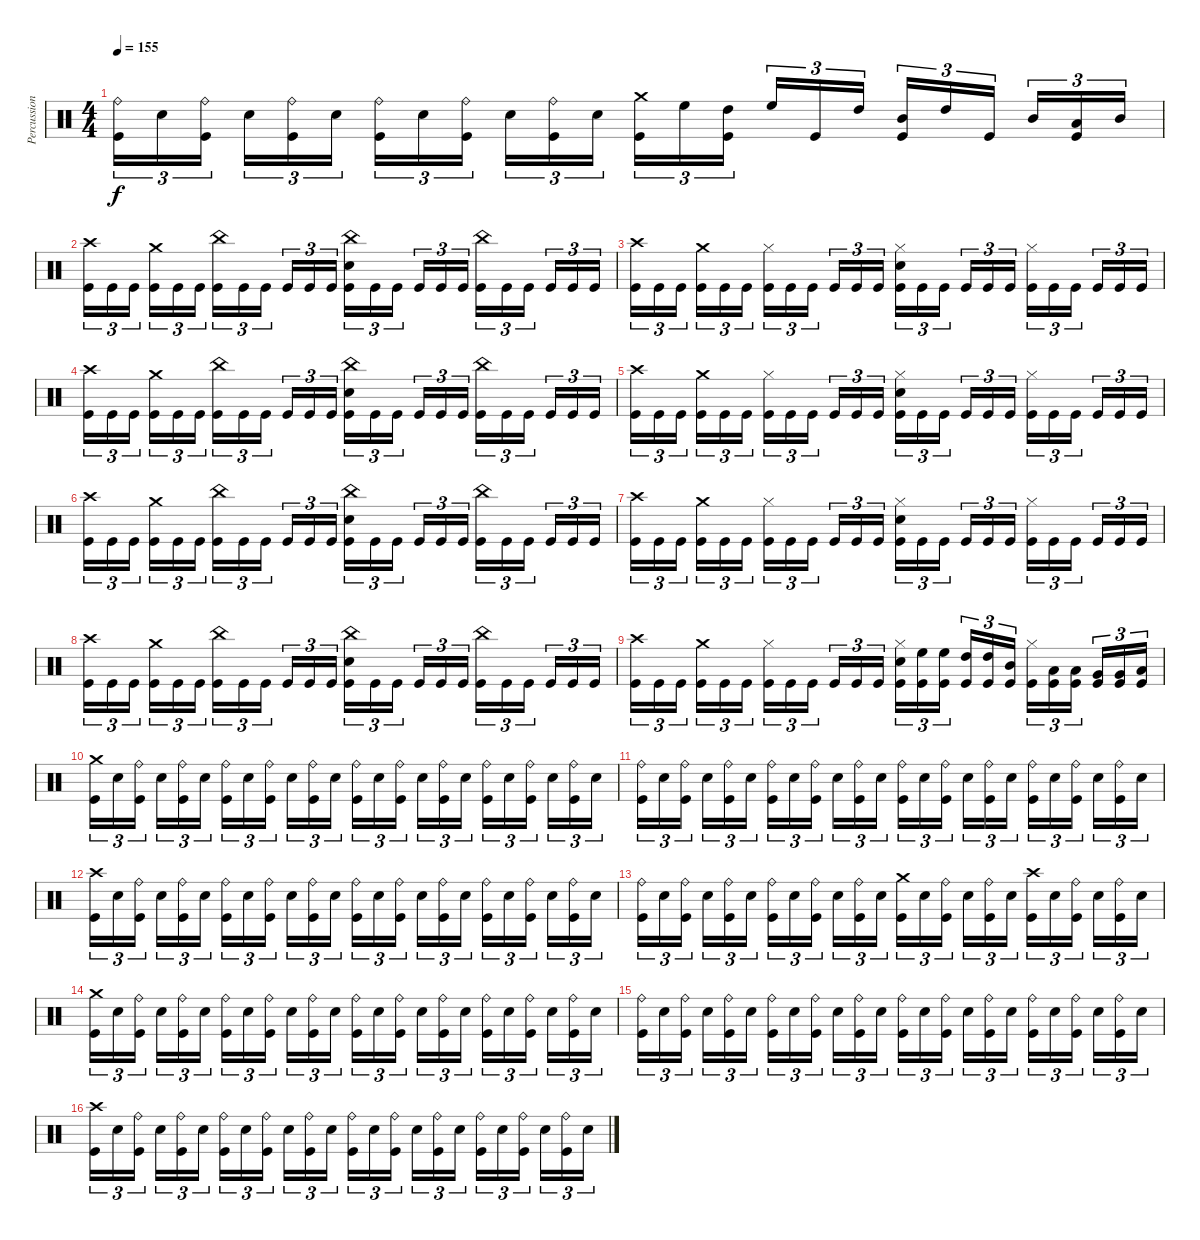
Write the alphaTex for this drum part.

\track ("Percussion" "Percussion") {instrument percussion}
\staff {score}
\articulation defaults
\ts (4 4)
\tempo 155
\clef neutral
\ks c
("Ride (bell)" "Kick (hit)").16{tu (3 2) dy f} "Snare (hit) 2".16{tu (3 2)} ("Ride (bell)" "Kick (hit)").16{tu (3 2) beam splitsecondary} "Snare (hit) 2".16{tu (3 2)} ("Ride (bell)" "Kick (hit)").16{tu (3 2)} "Snare (hit) 2".16{tu (3 2)} ("Ride (bell)" "Kick (hit)").16{tu (3 2)} "Snare (hit) 2".16{tu (3 2)} ("Ride (bell)" "Kick (hit)").16{tu (3 2) beam splitsecondary} "Snare (hit) 2".16{tu (3 2)} ("Ride (bell)" "Kick (hit)").16{tu (3 2)} "Snare (hit) 2".16{tu (3 2)} ("Crash medium (hit)" "Kick (hit)").16{tu (3 2)} "High Floor Tom (hit)".16{tu (3 2)} ("High Tom (hit)" "Kick (hit)").16{tu (3 2) beam splitsecondary} "High Floor Tom (hit)".16{tu (3 2)} "Kick (hit)".16{tu (3 2)} "High Tom (hit)".16{tu (3 2)} ("Mid Tom (hit)" "Kick (hit)").16{tu (3 2)} "High Tom (hit)".16{tu (3 2)} "Kick (hit)".16{tu (3 2) beam splitsecondary} "Mid Tom (hit)".16{tu (3 2)} ("Low Tom (hit)" "Kick (hit)").16{tu (3 2)} "Mid Tom (hit)".16{tu (3 2)} |
("Crash high (hit)" "Kick (hit)").16{tu (3 2)} "Kick (hit)".16{tu (3 2)} "Kick (hit)".16{tu (3 2) beam splitsecondary} ("Crash medium (hit)" "Kick (hit)").16{tu (3 2)} "Kick (hit)".16{tu (3 2)} "Kick (hit)".16{tu (3 2)} ("China (hit)" "Kick (hit)").16{tu (3 2)} "Kick (hit)".16{tu (3 2)} "Kick (hit)".16{tu (3 2) beam splitsecondary} "Kick (hit)".16{tu (3 2)} "Kick (hit)".16{tu (3 2)} "Kick (hit)".16{tu (3 2)} ("China (hit)" "Snare (hit) 2" "Kick (hit)").16{tu (3 2)} "Kick (hit)".16{tu (3 2)} "Kick (hit)".16{tu (3 2) beam splitsecondary} "Kick (hit)".16{tu (3 2)} "Kick (hit)".16{tu (3 2)} "Kick (hit)".16{tu (3 2)} ("China (hit)" "Kick (hit)").16{tu (3 2)} "Kick (hit)".16{tu (3 2)} "Kick (hit)".16{tu (3 2) beam splitsecondary} "Kick (hit)".16{tu (3 2)} "Kick (hit)".16{tu (3 2)} "Kick (hit)".16{tu (3 2)} |
("Crash high (hit)" "Kick (hit)").16{tu (3 2)} "Kick (hit)".16{tu (3 2)} "Kick (hit)".16{tu (3 2) beam splitsecondary} ("Crash medium (hit)" "Kick (hit)").16{tu (3 2)} "Kick (hit)".16{tu (3 2)} "Kick (hit)".16{tu (3 2)} ("Hi-Hat (closed)" "Kick (hit)").16{tu (3 2)} "Kick (hit)".16{tu (3 2)} "Kick (hit)".16{tu (3 2) beam splitsecondary} "Kick (hit)".16{tu (3 2)} "Kick (hit)".16{tu (3 2)} "Kick (hit)".16{tu (3 2)} ("Hi-Hat (closed)" "Snare (hit) 2" "Kick (hit)").16{tu (3 2)} "Kick (hit)".16{tu (3 2)} "Kick (hit)".16{tu (3 2) beam splitsecondary} "Kick (hit)".16{tu (3 2)} "Kick (hit)".16{tu (3 2)} "Kick (hit)".16{tu (3 2)} ("Hi-Hat (closed)" "Kick (hit)").16{tu (3 2)} "Kick (hit)".16{tu (3 2)} "Kick (hit)".16{tu (3 2) beam splitsecondary} "Kick (hit)".16{tu (3 2)} "Kick (hit)".16{tu (3 2)} "Kick (hit)".16{tu (3 2)} |
("Crash high (hit)" "Kick (hit)").16{tu (3 2)} "Kick (hit)".16{tu (3 2)} "Kick (hit)".16{tu (3 2) beam splitsecondary} ("Crash medium (hit)" "Kick (hit)").16{tu (3 2)} "Kick (hit)".16{tu (3 2)} "Kick (hit)".16{tu (3 2)} ("China (hit)" "Kick (hit)").16{tu (3 2)} "Kick (hit)".16{tu (3 2)} "Kick (hit)".16{tu (3 2) beam splitsecondary} "Kick (hit)".16{tu (3 2)} "Kick (hit)".16{tu (3 2)} "Kick (hit)".16{tu (3 2)} ("China (hit)" "Snare (hit) 2" "Kick (hit)").16{tu (3 2)} "Kick (hit)".16{tu (3 2)} "Kick (hit)".16{tu (3 2) beam splitsecondary} "Kick (hit)".16{tu (3 2)} "Kick (hit)".16{tu (3 2)} "Kick (hit)".16{tu (3 2)} ("China (hit)" "Kick (hit)").16{tu (3 2)} "Kick (hit)".16{tu (3 2)} "Kick (hit)".16{tu (3 2) beam splitsecondary} "Kick (hit)".16{tu (3 2)} "Kick (hit)".16{tu (3 2)} "Kick (hit)".16{tu (3 2)} |
("Crash high (hit)" "Kick (hit)").16{tu (3 2)} "Kick (hit)".16{tu (3 2)} "Kick (hit)".16{tu (3 2) beam splitsecondary} ("Crash medium (hit)" "Kick (hit)").16{tu (3 2)} "Kick (hit)".16{tu (3 2)} "Kick (hit)".16{tu (3 2)} ("Hi-Hat (closed)" "Kick (hit)").16{tu (3 2)} "Kick (hit)".16{tu (3 2)} "Kick (hit)".16{tu (3 2) beam splitsecondary} "Kick (hit)".16{tu (3 2)} "Kick (hit)".16{tu (3 2)} "Kick (hit)".16{tu (3 2)} ("Hi-Hat (closed)" "Snare (hit) 2" "Kick (hit)").16{tu (3 2)} "Kick (hit)".16{tu (3 2)} "Kick (hit)".16{tu (3 2) beam splitsecondary} "Kick (hit)".16{tu (3 2)} "Kick (hit)".16{tu (3 2)} "Kick (hit)".16{tu (3 2)} ("Hi-Hat (closed)" "Kick (hit)").16{tu (3 2)} "Kick (hit)".16{tu (3 2)} "Kick (hit)".16{tu (3 2) beam splitsecondary} "Kick (hit)".16{tu (3 2)} "Kick (hit)".16{tu (3 2)} "Kick (hit)".16{tu (3 2)} |
("Crash high (hit)" "Kick (hit)").16{tu (3 2)} "Kick (hit)".16{tu (3 2)} "Kick (hit)".16{tu (3 2) beam splitsecondary} ("Crash medium (hit)" "Kick (hit)").16{tu (3 2)} "Kick (hit)".16{tu (3 2)} "Kick (hit)".16{tu (3 2)} ("China (hit)" "Kick (hit)").16{tu (3 2)} "Kick (hit)".16{tu (3 2)} "Kick (hit)".16{tu (3 2) beam splitsecondary} "Kick (hit)".16{tu (3 2)} "Kick (hit)".16{tu (3 2)} "Kick (hit)".16{tu (3 2)} ("China (hit)" "Snare (hit) 2" "Kick (hit)").16{tu (3 2)} "Kick (hit)".16{tu (3 2)} "Kick (hit)".16{tu (3 2) beam splitsecondary} "Kick (hit)".16{tu (3 2)} "Kick (hit)".16{tu (3 2)} "Kick (hit)".16{tu (3 2)} ("China (hit)" "Kick (hit)").16{tu (3 2)} "Kick (hit)".16{tu (3 2)} "Kick (hit)".16{tu (3 2) beam splitsecondary} "Kick (hit)".16{tu (3 2)} "Kick (hit)".16{tu (3 2)} "Kick (hit)".16{tu (3 2)} |
("Crash high (hit)" "Kick (hit)").16{tu (3 2)} "Kick (hit)".16{tu (3 2)} "Kick (hit)".16{tu (3 2) beam splitsecondary} ("Crash medium (hit)" "Kick (hit)").16{tu (3 2)} "Kick (hit)".16{tu (3 2)} "Kick (hit)".16{tu (3 2)} ("Hi-Hat (closed)" "Kick (hit)").16{tu (3 2)} "Kick (hit)".16{tu (3 2)} "Kick (hit)".16{tu (3 2) beam splitsecondary} "Kick (hit)".16{tu (3 2)} "Kick (hit)".16{tu (3 2)} "Kick (hit)".16{tu (3 2)} ("Hi-Hat (closed)" "Snare (hit) 2" "Kick (hit)").16{tu (3 2)} "Kick (hit)".16{tu (3 2)} "Kick (hit)".16{tu (3 2) beam splitsecondary} "Kick (hit)".16{tu (3 2)} "Kick (hit)".16{tu (3 2)} "Kick (hit)".16{tu (3 2)} ("Hi-Hat (closed)" "Kick (hit)").16{tu (3 2)} "Kick (hit)".16{tu (3 2)} "Kick (hit)".16{tu (3 2) beam splitsecondary} "Kick (hit)".16{tu (3 2)} "Kick (hit)".16{tu (3 2)} "Kick (hit)".16{tu (3 2)} |
("Crash high (hit)" "Kick (hit)").16{tu (3 2)} "Kick (hit)".16{tu (3 2)} "Kick (hit)".16{tu (3 2) beam splitsecondary} ("Crash medium (hit)" "Kick (hit)").16{tu (3 2)} "Kick (hit)".16{tu (3 2)} "Kick (hit)".16{tu (3 2)} ("China (hit)" "Kick (hit)").16{tu (3 2)} "Kick (hit)".16{tu (3 2)} "Kick (hit)".16{tu (3 2) beam splitsecondary} "Kick (hit)".16{tu (3 2)} "Kick (hit)".16{tu (3 2)} "Kick (hit)".16{tu (3 2)} ("China (hit)" "Snare (hit) 2" "Kick (hit)").16{tu (3 2)} "Kick (hit)".16{tu (3 2)} "Kick (hit)".16{tu (3 2) beam splitsecondary} "Kick (hit)".16{tu (3 2)} "Kick (hit)".16{tu (3 2)} "Kick (hit)".16{tu (3 2)} ("China (hit)" "Kick (hit)").16{tu (3 2)} "Kick (hit)".16{tu (3 2)} "Kick (hit)".16{tu (3 2) beam splitsecondary} "Kick (hit)".16{tu (3 2)} "Kick (hit)".16{tu (3 2)} "Kick (hit)".16{tu (3 2)} |
("Crash high (hit)" "Kick (hit)").16{tu (3 2)} "Kick (hit)".16{tu (3 2)} "Kick (hit)".16{tu (3 2) beam splitsecondary} ("Crash medium (hit)" "Kick (hit)").16{tu (3 2)} "Kick (hit)".16{tu (3 2)} "Kick (hit)".16{tu (3 2)} ("Hi-Hat (closed)" "Kick (hit)").16{tu (3 2)} "Kick (hit)".16{tu (3 2)} "Kick (hit)".16{tu (3 2) beam splitsecondary} "Kick (hit)".16{tu (3 2)} "Kick (hit)".16{tu (3 2)} "Kick (hit)".16{tu (3 2)} ("Hi-Hat (closed)" "Snare (hit) 2" "Kick (hit)").16{tu (3 2)} ("High Floor Tom (hit)" "Kick (hit)").16{tu (3 2)} ("High Floor Tom (hit)" "Kick (hit)").16{tu (3 2) beam splitsecondary} ("High Tom (hit)" "Kick (hit)").16{tu (3 2)} ("High Tom (hit)" "Kick (hit)").16{tu (3 2)} ("Mid Tom (hit)" "Kick (hit)").16{tu (3 2)} ("Hi-Hat (closed)" "Kick (hit)").16{tu (3 2)} ("Low Tom (hit)" "Kick (hit)").16{tu (3 2)} ("Low Tom (hit)" "Kick (hit)").16{tu (3 2) beam splitsecondary} ("Very Low Tom (hit)" "Kick (hit)").16{tu (3 2)} ("Very Low Tom (hit)" "Kick (hit)").16{tu (3 2)} ("Low Floor Tom (hit)" "Kick (hit)").16{tu (3 2)} |
("Crash medium (hit)" "Kick (hit)").16{tu (3 2)} "Snare (hit) 2".16{tu (3 2)} ("Ride (bell)" "Kick (hit)").16{tu (3 2) beam splitsecondary} "Snare (hit) 2".16{tu (3 2)} ("Ride (bell)" "Kick (hit)").16{tu (3 2)} "Snare (hit) 2".16{tu (3 2)} ("Ride (bell)" "Kick (hit)").16{tu (3 2)} "Snare (hit) 2".16{tu (3 2)} ("Ride (bell)" "Kick (hit)").16{tu (3 2) beam splitsecondary} "Snare (hit) 2".16{tu (3 2)} ("Ride (bell)" "Kick (hit)").16{tu (3 2)} "Snare (hit) 2".16{tu (3 2)} ("Ride (bell)" "Kick (hit)").16{tu (3 2)} "Snare (hit) 2".16{tu (3 2)} ("Ride (bell)" "Kick (hit)").16{tu (3 2) beam splitsecondary} "Snare (hit) 2".16{tu (3 2)} ("Ride (bell)" "Kick (hit)").16{tu (3 2)} "Snare (hit) 2".16{tu (3 2)} ("Ride (bell)" "Kick (hit)").16{tu (3 2)} "Snare (hit) 2".16{tu (3 2)} ("Ride (bell)" "Kick (hit)").16{tu (3 2) beam splitsecondary} "Snare (hit) 2".16{tu (3 2)} ("Ride (bell)" "Kick (hit)").16{tu (3 2)} "Snare (hit) 2".16{tu (3 2)} |
("Ride (bell)" "Kick (hit)").16{tu (3 2)} "Snare (hit) 2".16{tu (3 2)} ("Ride (bell)" "Kick (hit)").16{tu (3 2) beam splitsecondary} "Snare (hit) 2".16{tu (3 2)} ("Ride (bell)" "Kick (hit)").16{tu (3 2)} "Snare (hit) 2".16{tu (3 2)} ("Ride (bell)" "Kick (hit)").16{tu (3 2)} "Snare (hit) 2".16{tu (3 2)} ("Ride (bell)" "Kick (hit)").16{tu (3 2) beam splitsecondary} "Snare (hit) 2".16{tu (3 2)} ("Ride (bell)" "Kick (hit)").16{tu (3 2)} "Snare (hit) 2".16{tu (3 2)} ("Ride (bell)" "Kick (hit)").16{tu (3 2)} "Snare (hit) 2".16{tu (3 2)} ("Ride (bell)" "Kick (hit)").16{tu (3 2) beam splitsecondary} "Snare (hit) 2".16{tu (3 2)} ("Ride (bell)" "Kick (hit)").16{tu (3 2)} "Snare (hit) 2".16{tu (3 2)} ("Ride (bell)" "Kick (hit)").16{tu (3 2)} "Snare (hit) 2".16{tu (3 2)} ("Ride (bell)" "Kick (hit)").16{tu (3 2) beam splitsecondary} "Snare (hit) 2".16{tu (3 2)} ("Ride (bell)" "Kick (hit)").16{tu (3 2)} "Snare (hit) 2".16{tu (3 2)} |
("Crash high (hit)" "Kick (hit)").16{tu (3 2)} "Snare (hit) 2".16{tu (3 2)} ("Ride (bell)" "Kick (hit)").16{tu (3 2) beam splitsecondary} "Snare (hit) 2".16{tu (3 2)} ("Ride (bell)" "Kick (hit)").16{tu (3 2)} "Snare (hit) 2".16{tu (3 2)} ("Ride (bell)" "Kick (hit)").16{tu (3 2)} "Snare (hit) 2".16{tu (3 2)} ("Ride (bell)" "Kick (hit)").16{tu (3 2) beam splitsecondary} "Snare (hit) 2".16{tu (3 2)} ("Ride (bell)" "Kick (hit)").16{tu (3 2)} "Snare (hit) 2".16{tu (3 2)} ("Ride (bell)" "Kick (hit)").16{tu (3 2)} "Snare (hit) 2".16{tu (3 2)} ("Ride (bell)" "Kick (hit)").16{tu (3 2) beam splitsecondary} "Snare (hit) 2".16{tu (3 2)} ("Ride (bell)" "Kick (hit)").16{tu (3 2)} "Snare (hit) 2".16{tu (3 2)} ("Ride (bell)" "Kick (hit)").16{tu (3 2)} "Snare (hit) 2".16{tu (3 2)} ("Ride (bell)" "Kick (hit)").16{tu (3 2) beam splitsecondary} "Snare (hit) 2".16{tu (3 2)} ("Ride (bell)" "Kick (hit)").16{tu (3 2)} "Snare (hit) 2".16{tu (3 2)} |
("Ride (bell)" "Kick (hit)").16{tu (3 2)} "Snare (hit) 2".16{tu (3 2)} ("Ride (bell)" "Kick (hit)").16{tu (3 2) beam splitsecondary} "Snare (hit) 2".16{tu (3 2)} ("Ride (bell)" "Kick (hit)").16{tu (3 2)} "Snare (hit) 2".16{tu (3 2)} ("Ride (bell)" "Kick (hit)").16{tu (3 2)} "Snare (hit) 2".16{tu (3 2)} ("Ride (bell)" "Kick (hit)").16{tu (3 2) beam splitsecondary} "Snare (hit) 2".16{tu (3 2)} ("Ride (bell)" "Kick (hit)").16{tu (3 2)} "Snare (hit) 2".16{tu (3 2)} ("Crash medium (hit)" "Kick (hit)").16{tu (3 2)} "Snare (hit) 2".16{tu (3 2)} ("Ride (bell)" "Kick (hit)").16{tu (3 2) beam splitsecondary} "Snare (hit) 2".16{tu (3 2)} ("Ride (bell)" "Kick (hit)").16{tu (3 2)} "Snare (hit) 2".16{tu (3 2)} ("Crash high (hit)" "Kick (hit)").16{tu (3 2)} "Snare (hit) 2".16{tu (3 2)} ("Ride (bell)" "Kick (hit)").16{tu (3 2) beam splitsecondary} "Snare (hit) 2".16{tu (3 2)} ("Ride (bell)" "Kick (hit)").16{tu (3 2)} "Snare (hit) 2".16{tu (3 2)} |
("Crash medium (hit)" "Kick (hit)").16{tu (3 2)} "Snare (hit) 2".16{tu (3 2)} ("Ride (bell)" "Kick (hit)").16{tu (3 2) beam splitsecondary} "Snare (hit) 2".16{tu (3 2)} ("Ride (bell)" "Kick (hit)").16{tu (3 2)} "Snare (hit) 2".16{tu (3 2)} ("Ride (bell)" "Kick (hit)").16{tu (3 2)} "Snare (hit) 2".16{tu (3 2)} ("Ride (bell)" "Kick (hit)").16{tu (3 2) beam splitsecondary} "Snare (hit) 2".16{tu (3 2)} ("Ride (bell)" "Kick (hit)").16{tu (3 2)} "Snare (hit) 2".16{tu (3 2)} ("Ride (bell)" "Kick (hit)").16{tu (3 2)} "Snare (hit) 2".16{tu (3 2)} ("Ride (bell)" "Kick (hit)").16{tu (3 2) beam splitsecondary} "Snare (hit) 2".16{tu (3 2)} ("Ride (bell)" "Kick (hit)").16{tu (3 2)} "Snare (hit) 2".16{tu (3 2)} ("Ride (bell)" "Kick (hit)").16{tu (3 2)} "Snare (hit) 2".16{tu (3 2)} ("Ride (bell)" "Kick (hit)").16{tu (3 2) beam splitsecondary} "Snare (hit) 2".16{tu (3 2)} ("Ride (bell)" "Kick (hit)").16{tu (3 2)} "Snare (hit) 2".16{tu (3 2)} |
("Ride (bell)" "Kick (hit)").16{tu (3 2)} "Snare (hit) 2".16{tu (3 2)} ("Ride (bell)" "Kick (hit)").16{tu (3 2) beam splitsecondary} "Snare (hit) 2".16{tu (3 2)} ("Ride (bell)" "Kick (hit)").16{tu (3 2)} "Snare (hit) 2".16{tu (3 2)} ("Ride (bell)" "Kick (hit)").16{tu (3 2)} "Snare (hit) 2".16{tu (3 2)} ("Ride (bell)" "Kick (hit)").16{tu (3 2) beam splitsecondary} "Snare (hit) 2".16{tu (3 2)} ("Ride (bell)" "Kick (hit)").16{tu (3 2)} "Snare (hit) 2".16{tu (3 2)} ("Ride (bell)" "Kick (hit)").16{tu (3 2)} "Snare (hit) 2".16{tu (3 2)} ("Ride (bell)" "Kick (hit)").16{tu (3 2) beam splitsecondary} "Snare (hit) 2".16{tu (3 2)} ("Ride (bell)" "Kick (hit)").16{tu (3 2)} "Snare (hit) 2".16{tu (3 2)} ("Ride (bell)" "Kick (hit)").16{tu (3 2)} "Snare (hit) 2".16{tu (3 2)} ("Ride (bell)" "Kick (hit)").16{tu (3 2) beam splitsecondary} "Snare (hit) 2".16{tu (3 2)} ("Ride (bell)" "Kick (hit)").16{tu (3 2)} "Snare (hit) 2".16{tu (3 2)} |
("Crash high (hit)" "Kick (hit)").16{tu (3 2)} "Snare (hit) 2".16{tu (3 2)} ("Ride (bell)" "Kick (hit)").16{tu (3 2) beam splitsecondary} "Snare (hit) 2".16{tu (3 2)} ("Ride (bell)" "Kick (hit)").16{tu (3 2)} "Snare (hit) 2".16{tu (3 2)} ("Ride (bell)" "Kick (hit)").16{tu (3 2)} "Snare (hit) 2".16{tu (3 2)} ("Ride (bell)" "Kick (hit)").16{tu (3 2) beam splitsecondary} "Snare (hit) 2".16{tu (3 2)} ("Ride (bell)" "Kick (hit)").16{tu (3 2)} "Snare (hit) 2".16{tu (3 2)} ("Ride (bell)" "Kick (hit)").16{tu (3 2)} "Snare (hit) 2".16{tu (3 2)} ("Ride (bell)" "Kick (hit)").16{tu (3 2) beam splitsecondary} "Snare (hit) 2".16{tu (3 2)} ("Ride (bell)" "Kick (hit)").16{tu (3 2)} "Snare (hit) 2".16{tu (3 2)} ("Ride (bell)" "Kick (hit)").16{tu (3 2)} "Snare (hit) 2".16{tu (3 2)} ("Ride (bell)" "Kick (hit)").16{tu (3 2) beam splitsecondary} "Snare (hit) 2".16{tu (3 2)} ("Ride (bell)" "Kick (hit)").16{tu (3 2)} "Snare (hit) 2".16{tu (3 2)}
